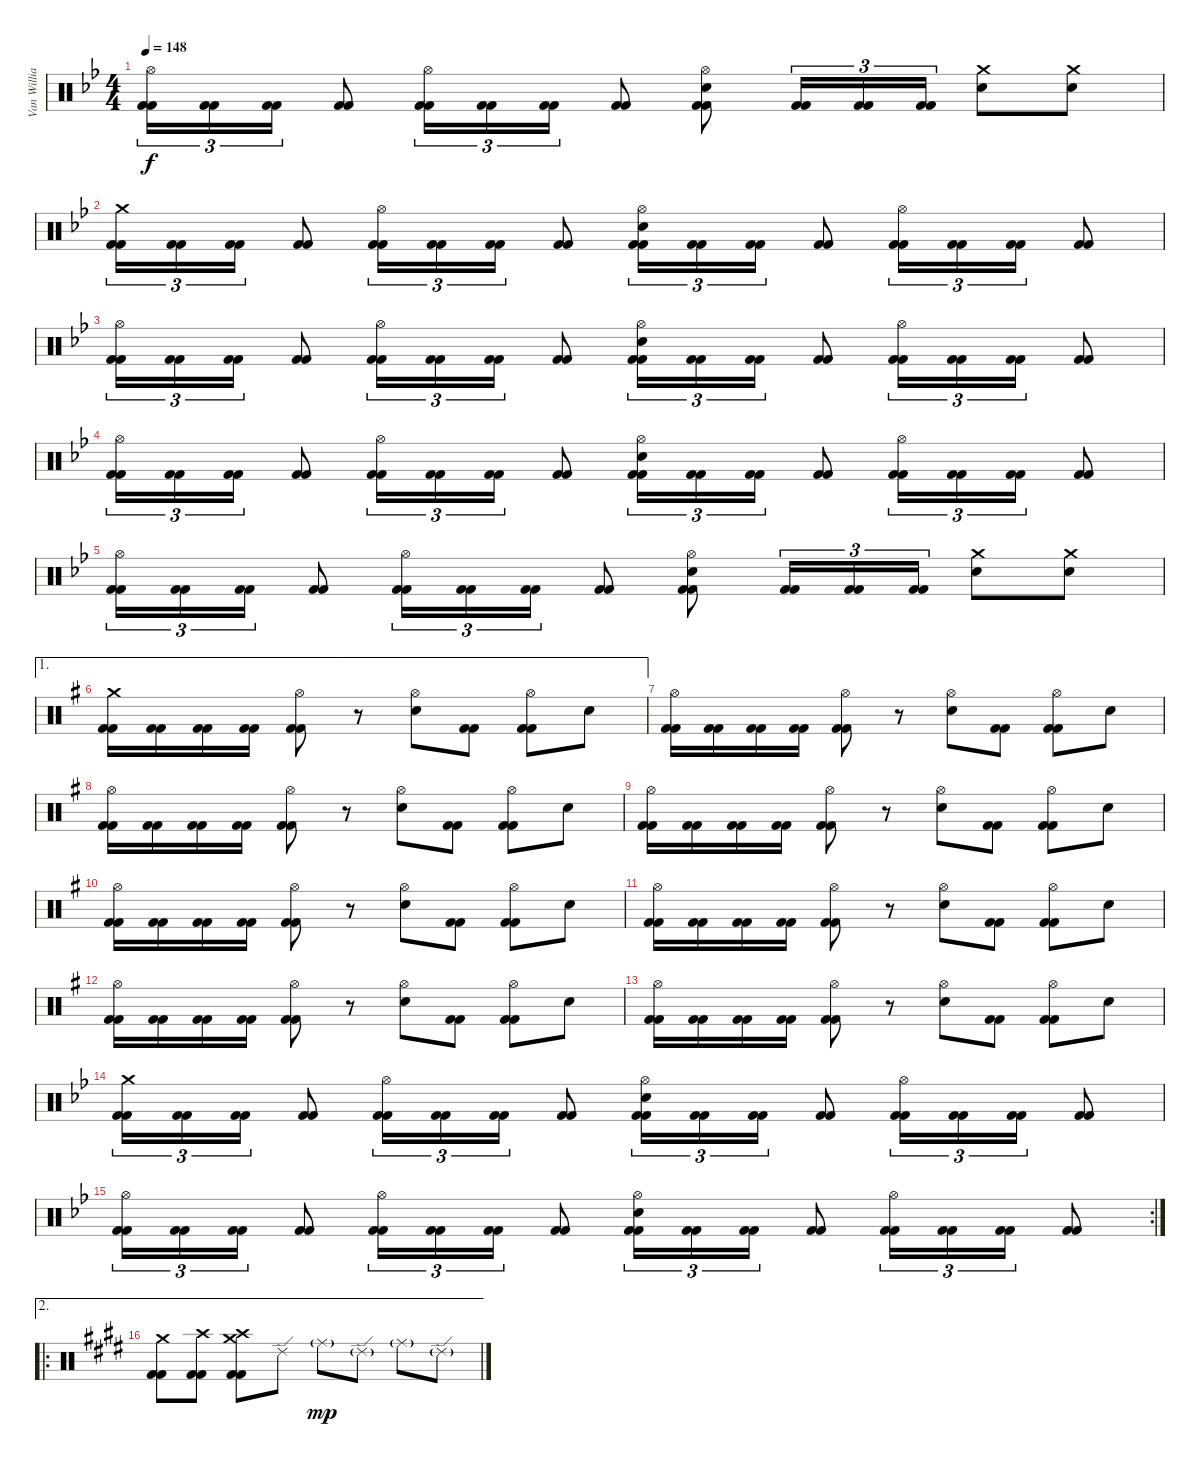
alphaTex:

\track ("Van Williams" "Van Willia") {instrument percussion}
\staff {score}
\articulation defaults
\ts (4 4)
\tempo 148
\clef neutral
\ks bb
("Hi-Hat (open)" "Kick (hit) 2" "Kick (hit) 2").16{tu (3 2) dy f} ("Kick (hit) 2" "Kick (hit) 2").16{tu (3 2)} ("Kick (hit) 2" "Kick (hit) 2").16{tu (3 2)} ("Kick (hit) 2" "Kick (hit) 2").8 ("Hi-Hat (open)" "Kick (hit) 2" "Kick (hit) 2").16{tu (3 2)} ("Kick (hit) 2" "Kick (hit) 2").16{tu (3 2)} ("Kick (hit) 2" "Kick (hit) 2").16{tu (3 2)} ("Kick (hit) 2" "Kick (hit) 2").8 ("Hi-Hat (open)" "Electric Snare (hit)" "Kick (hit) 2" "Kick (hit) 2").8 ("Kick (hit) 2" "Kick (hit) 2").16{tu (3 2)} ("Kick (hit) 2" "Kick (hit) 2").16{tu (3 2)} ("Kick (hit) 2" "Kick (hit) 2").16{tu (3 2)} ("Crash medium (hit)" "Electric Snare (hit)").8 ("Crash medium (hit)" "Electric Snare (hit)").8 |
("Crash medium (hit)" "Kick (hit) 2" "Kick (hit) 2").16{tu (3 2)} ("Kick (hit) 2" "Kick (hit) 2").16{tu (3 2)} ("Kick (hit) 2" "Kick (hit) 2").16{tu (3 2)} ("Kick (hit) 2" "Kick (hit) 2").8 ("Hi-Hat (open)" "Kick (hit) 2" "Kick (hit) 2").16{tu (3 2)} ("Kick (hit) 2" "Kick (hit) 2").16{tu (3 2)} ("Kick (hit) 2" "Kick (hit) 2").16{tu (3 2)} ("Kick (hit) 2" "Kick (hit) 2").8 ("Hi-Hat (open)" "Electric Snare (hit)" "Kick (hit) 2" "Kick (hit) 2").16{tu (3 2)} ("Kick (hit) 2" "Kick (hit) 2").16{tu (3 2)} ("Kick (hit) 2" "Kick (hit) 2").16{tu (3 2)} ("Kick (hit) 2" "Kick (hit) 2").8 ("Hi-Hat (open)" "Kick (hit) 2" "Kick (hit) 2").16{tu (3 2)} ("Kick (hit) 2" "Kick (hit) 2").16{tu (3 2)} ("Kick (hit) 2" "Kick (hit) 2").16{tu (3 2)} ("Kick (hit) 2" "Kick (hit) 2").8 |
("Hi-Hat (open)" "Kick (hit) 2" "Kick (hit) 2").16{tu (3 2)} ("Kick (hit) 2" "Kick (hit) 2").16{tu (3 2)} ("Kick (hit) 2" "Kick (hit) 2").16{tu (3 2)} ("Kick (hit) 2" "Kick (hit) 2").8 ("Hi-Hat (open)" "Kick (hit) 2" "Kick (hit) 2").16{tu (3 2)} ("Kick (hit) 2" "Kick (hit) 2").16{tu (3 2)} ("Kick (hit) 2" "Kick (hit) 2").16{tu (3 2)} ("Kick (hit) 2" "Kick (hit) 2").8 ("Hi-Hat (open)" "Electric Snare (hit)" "Kick (hit) 2" "Kick (hit) 2").16{tu (3 2)} ("Kick (hit) 2" "Kick (hit) 2").16{tu (3 2)} ("Kick (hit) 2" "Kick (hit) 2").16{tu (3 2)} ("Kick (hit) 2" "Kick (hit) 2").8 ("Hi-Hat (open)" "Kick (hit) 2" "Kick (hit) 2").16{tu (3 2)} ("Kick (hit) 2" "Kick (hit) 2").16{tu (3 2)} ("Kick (hit) 2" "Kick (hit) 2").16{tu (3 2)} ("Kick (hit) 2" "Kick (hit) 2").8 |
("Hi-Hat (open)" "Kick (hit) 2" "Kick (hit) 2").16{tu (3 2)} ("Kick (hit) 2" "Kick (hit) 2").16{tu (3 2)} ("Kick (hit) 2" "Kick (hit) 2").16{tu (3 2)} ("Kick (hit) 2" "Kick (hit) 2").8 ("Hi-Hat (open)" "Kick (hit) 2" "Kick (hit) 2").16{tu (3 2)} ("Kick (hit) 2" "Kick (hit) 2").16{tu (3 2)} ("Kick (hit) 2" "Kick (hit) 2").16{tu (3 2)} ("Kick (hit) 2" "Kick (hit) 2").8 ("Hi-Hat (open)" "Electric Snare (hit)" "Kick (hit) 2" "Kick (hit) 2").16{tu (3 2)} ("Kick (hit) 2" "Kick (hit) 2").16{tu (3 2)} ("Kick (hit) 2" "Kick (hit) 2").16{tu (3 2)} ("Kick (hit) 2" "Kick (hit) 2").8 ("Hi-Hat (open)" "Kick (hit) 2" "Kick (hit) 2").16{tu (3 2)} ("Kick (hit) 2" "Kick (hit) 2").16{tu (3 2)} ("Kick (hit) 2" "Kick (hit) 2").16{tu (3 2)} ("Kick (hit) 2" "Kick (hit) 2").8 |
("Hi-Hat (open)" "Kick (hit) 2" "Kick (hit) 2").16{tu (3 2)} ("Kick (hit) 2" "Kick (hit) 2").16{tu (3 2)} ("Kick (hit) 2" "Kick (hit) 2").16{tu (3 2)} ("Kick (hit) 2" "Kick (hit) 2").8 ("Hi-Hat (open)" "Kick (hit) 2" "Kick (hit) 2").16{tu (3 2)} ("Kick (hit) 2" "Kick (hit) 2").16{tu (3 2)} ("Kick (hit) 2" "Kick (hit) 2").16{tu (3 2)} ("Kick (hit) 2" "Kick (hit) 2").8 ("Hi-Hat (open)" "Electric Snare (hit)" "Kick (hit) 2" "Kick (hit) 2").8 ("Kick (hit) 2" "Kick (hit) 2").16{tu (3 2)} ("Kick (hit) 2" "Kick (hit) 2").16{tu (3 2)} ("Kick (hit) 2" "Kick (hit) 2").16{tu (3 2)} ("Crash medium (hit)" "Electric Snare (hit)").8 ("Crash medium (hit)" "Electric Snare (hit)").8 |
\ae 1
\ks g
("Crash medium (hit)" "Kick (hit) 2" "Kick (hit) 2").16 ("Kick (hit) 2" "Kick (hit) 2").16 ("Kick (hit) 2" "Kick (hit) 2").16 ("Kick (hit) 2" "Kick (hit) 2").16 ("Hi-Hat (open)" "Kick (hit) 2" "Kick (hit) 2").8 r.8 ("Hi-Hat (open)" "Electric Snare (hit)").8 ("Kick (hit) 2" "Kick (hit) 2").8 ("Hi-Hat (open)" "Kick (hit) 2" "Kick (hit) 2").8 "Electric Snare (hit)".8 |
("Hi-Hat (open)" "Kick (hit) 2" "Kick (hit) 2").16 ("Kick (hit) 2" "Kick (hit) 2").16 ("Kick (hit) 2" "Kick (hit) 2").16 ("Kick (hit) 2" "Kick (hit) 2").16 ("Hi-Hat (open)" "Kick (hit) 2" "Kick (hit) 2").8 r.8 ("Hi-Hat (open)" "Electric Snare (hit)").8 ("Kick (hit) 2" "Kick (hit) 2").8 ("Hi-Hat (open)" "Kick (hit) 2" "Kick (hit) 2").8 "Electric Snare (hit)".8 |
("Hi-Hat (open)" "Kick (hit) 2" "Kick (hit) 2").16 ("Kick (hit) 2" "Kick (hit) 2").16 ("Kick (hit) 2" "Kick (hit) 2").16 ("Kick (hit) 2" "Kick (hit) 2").16 ("Hi-Hat (open)" "Kick (hit) 2" "Kick (hit) 2").8 r.8 ("Hi-Hat (open)" "Electric Snare (hit)").8 ("Kick (hit) 2" "Kick (hit) 2").8 ("Hi-Hat (open)" "Kick (hit) 2" "Kick (hit) 2").8 "Electric Snare (hit)".8 |
("Hi-Hat (open)" "Kick (hit) 2" "Kick (hit) 2").16 ("Kick (hit) 2" "Kick (hit) 2").16 ("Kick (hit) 2" "Kick (hit) 2").16 ("Kick (hit) 2" "Kick (hit) 2").16 ("Hi-Hat (open)" "Kick (hit) 2" "Kick (hit) 2").8 r.8 ("Hi-Hat (open)" "Electric Snare (hit)").8 ("Kick (hit) 2" "Kick (hit) 2").8 ("Hi-Hat (open)" "Kick (hit) 2" "Kick (hit) 2").8 "Electric Snare (hit)".8 |
("Hi-Hat (open)" "Kick (hit) 2" "Kick (hit) 2").16 ("Kick (hit) 2" "Kick (hit) 2").16 ("Kick (hit) 2" "Kick (hit) 2").16 ("Kick (hit) 2" "Kick (hit) 2").16 ("Hi-Hat (open)" "Kick (hit) 2" "Kick (hit) 2").8 r.8 ("Hi-Hat (open)" "Electric Snare (hit)").8 ("Kick (hit) 2" "Kick (hit) 2").8 ("Hi-Hat (open)" "Kick (hit) 2" "Kick (hit) 2").8 "Electric Snare (hit)".8 |
("Hi-Hat (open)" "Kick (hit) 2" "Kick (hit) 2").16 ("Kick (hit) 2" "Kick (hit) 2").16 ("Kick (hit) 2" "Kick (hit) 2").16 ("Kick (hit) 2" "Kick (hit) 2").16 ("Hi-Hat (open)" "Kick (hit) 2" "Kick (hit) 2").8 r.8 ("Hi-Hat (open)" "Electric Snare (hit)").8 ("Kick (hit) 2" "Kick (hit) 2").8 ("Hi-Hat (open)" "Kick (hit) 2" "Kick (hit) 2").8 "Electric Snare (hit)".8 |
("Hi-Hat (open)" "Kick (hit) 2" "Kick (hit) 2").16 ("Kick (hit) 2" "Kick (hit) 2").16 ("Kick (hit) 2" "Kick (hit) 2").16 ("Kick (hit) 2" "Kick (hit) 2").16 ("Hi-Hat (open)" "Kick (hit) 2" "Kick (hit) 2").8 r.8 ("Hi-Hat (open)" "Electric Snare (hit)").8 ("Kick (hit) 2" "Kick (hit) 2").8 ("Hi-Hat (open)" "Kick (hit) 2" "Kick (hit) 2").8 "Electric Snare (hit)".8 |
("Hi-Hat (open)" "Kick (hit) 2" "Kick (hit) 2").16 ("Kick (hit) 2" "Kick (hit) 2").16 ("Kick (hit) 2" "Kick (hit) 2").16 ("Kick (hit) 2" "Kick (hit) 2").16 ("Hi-Hat (open)" "Kick (hit) 2" "Kick (hit) 2").8 r.8 ("Hi-Hat (open)" "Electric Snare (hit)").8 ("Kick (hit) 2" "Kick (hit) 2").8 ("Hi-Hat (open)" "Kick (hit) 2" "Kick (hit) 2").8 "Electric Snare (hit)".8 |
\ks bb
("Crash medium (hit)" "Kick (hit) 2" "Kick (hit) 2").16{tu (3 2)} ("Kick (hit) 2" "Kick (hit) 2").16{tu (3 2)} ("Kick (hit) 2" "Kick (hit) 2").16{tu (3 2)} ("Kick (hit) 2" "Kick (hit) 2").8 ("Hi-Hat (open)" "Kick (hit) 2" "Kick (hit) 2").16{tu (3 2)} ("Kick (hit) 2" "Kick (hit) 2").16{tu (3 2)} ("Kick (hit) 2" "Kick (hit) 2").16{tu (3 2)} ("Kick (hit) 2" "Kick (hit) 2").8 ("Hi-Hat (open)" "Electric Snare (hit)" "Kick (hit) 2" "Kick (hit) 2").16{tu (3 2)} ("Kick (hit) 2" "Kick (hit) 2").16{tu (3 2)} ("Kick (hit) 2" "Kick (hit) 2").16{tu (3 2)} ("Kick (hit) 2" "Kick (hit) 2").8 ("Hi-Hat (open)" "Kick (hit) 2" "Kick (hit) 2").16{tu (3 2)} ("Kick (hit) 2" "Kick (hit) 2").16{tu (3 2)} ("Kick (hit) 2" "Kick (hit) 2").16{tu (3 2)} ("Kick (hit) 2" "Kick (hit) 2").8 |
\rc 2
("Hi-Hat (open)" "Kick (hit) 2" "Kick (hit) 2").16{tu (3 2)} ("Kick (hit) 2" "Kick (hit) 2").16{tu (3 2)} ("Kick (hit) 2" "Kick (hit) 2").16{tu (3 2)} ("Kick (hit) 2" "Kick (hit) 2").8 ("Hi-Hat (open)" "Kick (hit) 2" "Kick (hit) 2").16{tu (3 2)} ("Kick (hit) 2" "Kick (hit) 2").16{tu (3 2)} ("Kick (hit) 2" "Kick (hit) 2").16{tu (3 2)} ("Kick (hit) 2" "Kick (hit) 2").8 ("Hi-Hat (open)" "Electric Snare (hit)" "Kick (hit) 2" "Kick (hit) 2").16{tu (3 2)} ("Kick (hit) 2" "Kick (hit) 2").16{tu (3 2)} ("Kick (hit) 2" "Kick (hit) 2").16{tu (3 2)} ("Kick (hit) 2" "Kick (hit) 2").8 ("Hi-Hat (open)" "Kick (hit) 2" "Kick (hit) 2").16{tu (3 2)} ("Kick (hit) 2" "Kick (hit) 2").16{tu (3 2)} ("Kick (hit) 2" "Kick (hit) 2").16{tu (3 2)} ("Kick (hit) 2" "Kick (hit) 2").8 |
\ae 2
\ro
\ks e
("Crash medium (hit)" "Kick (hit) 2" "Kick (hit) 2").8 ("Crash high (hit)" "Kick (hit) 2" "Kick (hit) 2").8 ("Crash high (hit)" "Crash medium (hit)" "Kick (hit) 2" "Kick (hit) 2").8 "Ride (edge) 2".8 "Ride (middle)"{g}.8{dy mp} "Ride (edge) 2"{g}.8 "Ride (middle)"{g}.8 "Ride (edge) 2"{g}.8
